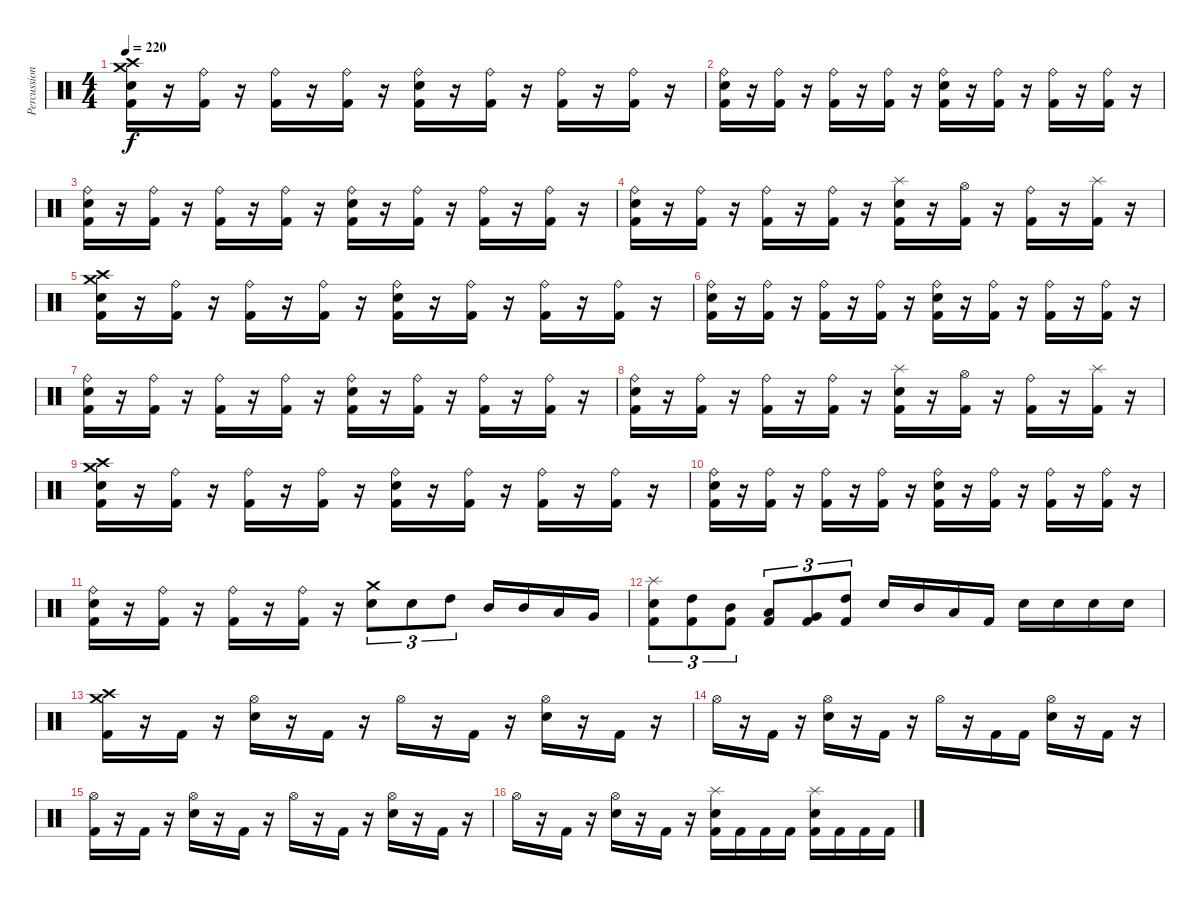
\track ("Percussion" "Percussion") {instrument percussion}
\staff {score}
\articulation defaults
\ts (4 4)
\tempo 220
\clef neutral
\ks c
("Crash high (hit)" "Crash medium (hit)" "Electric Snare (hit)" "Kick (hit) 2").16{dy f} r.16 ("Ride (bell)" "Kick (hit) 2").16 r.16 ("Ride (bell)" "Kick (hit) 2").16 r.16 ("Ride (bell)" "Kick (hit) 2").16 r.16 ("Ride (bell)" "Electric Snare (hit)" "Kick (hit) 2").16 r.16 ("Ride (bell)" "Kick (hit) 2").16 r.16 ("Ride (bell)" "Kick (hit) 2").16 r.16 ("Ride (bell)" "Kick (hit) 2").16 r.16 |
("Ride (bell)" "Electric Snare (hit)" "Kick (hit) 2").16 r.16 ("Ride (bell)" "Kick (hit) 2").16 r.16 ("Ride (bell)" "Kick (hit) 2").16 r.16 ("Ride (bell)" "Kick (hit) 2").16 r.16 ("Ride (bell)" "Electric Snare (hit)" "Kick (hit) 2").16 r.16 ("Ride (bell)" "Kick (hit) 2").16 r.16 ("Ride (bell)" "Kick (hit) 2").16 r.16 ("Ride (bell)" "Kick (hit) 2").16 r.16 |
("Ride (bell)" "Electric Snare (hit)" "Kick (hit) 2").16 r.16 ("Ride (bell)" "Kick (hit) 2").16 r.16 ("Ride (bell)" "Kick (hit) 2").16 r.16 ("Ride (bell)" "Kick (hit) 2").16 r.16 ("Ride (bell)" "Electric Snare (hit)" "Kick (hit) 2").16 r.16 ("Ride (bell)" "Kick (hit) 2").16 r.16 ("Ride (bell)" "Kick (hit) 2").16 r.16 ("Ride (bell)" "Kick (hit) 2").16 r.16 |
("Ride (bell)" "Electric Snare (hit)" "Kick (hit) 2").16 r.16 ("Ride (bell)" "Kick (hit) 2").16 r.16 ("Ride (bell)" "Kick (hit) 2").16 r.16 ("Ride (bell)" "Kick (hit) 2").16 r.16 ("Splash (hit)" "Electric Snare (hit)" "Kick (hit) 2").16 r.16 ("Hi-Hat (open)" "Kick (hit) 2").16 r.16 ("Ride (bell)" "Kick (hit) 2").16 r.16 ("Splash (hit)" "Kick (hit) 2").16 r.16 |
("Crash high (hit)" "Crash medium (hit)" "Electric Snare (hit)" "Kick (hit) 2").16 r.16 ("Ride (bell)" "Kick (hit) 2").16 r.16 ("Ride (bell)" "Kick (hit) 2").16 r.16 ("Ride (bell)" "Kick (hit) 2").16 r.16 ("Ride (bell)" "Electric Snare (hit)" "Kick (hit) 2").16 r.16 ("Ride (bell)" "Kick (hit) 2").16 r.16 ("Ride (bell)" "Kick (hit) 2").16 r.16 ("Ride (bell)" "Kick (hit) 2").16 r.16 |
("Ride (bell)" "Electric Snare (hit)" "Kick (hit) 2").16 r.16 ("Ride (bell)" "Kick (hit) 2").16 r.16 ("Ride (bell)" "Kick (hit) 2").16 r.16 ("Ride (bell)" "Kick (hit) 2").16 r.16 ("Ride (bell)" "Electric Snare (hit)" "Kick (hit) 2").16 r.16 ("Ride (bell)" "Kick (hit) 2").16 r.16 ("Ride (bell)" "Kick (hit) 2").16 r.16 ("Ride (bell)" "Kick (hit) 2").16 r.16 |
("Ride (bell)" "Electric Snare (hit)" "Kick (hit) 2").16 r.16 ("Ride (bell)" "Kick (hit) 2").16 r.16 ("Ride (bell)" "Kick (hit) 2").16 r.16 ("Ride (bell)" "Kick (hit) 2").16 r.16 ("Ride (bell)" "Electric Snare (hit)" "Kick (hit) 2").16 r.16 ("Ride (bell)" "Kick (hit) 2").16 r.16 ("Ride (bell)" "Kick (hit) 2").16 r.16 ("Ride (bell)" "Kick (hit) 2").16 r.16 |
("Ride (bell)" "Electric Snare (hit)" "Kick (hit) 2").16 r.16 ("Ride (bell)" "Kick (hit) 2").16 r.16 ("Ride (bell)" "Kick (hit) 2").16 r.16 ("Ride (bell)" "Kick (hit) 2").16 r.16 ("Splash (hit)" "Electric Snare (hit)" "Kick (hit) 2").16 r.16 ("Hi-Hat (open)" "Kick (hit) 2").16 r.16 ("Ride (bell)" "Kick (hit) 2").16 r.16 ("Splash (hit)" "Kick (hit) 2").16 r.16 |
("Crash high (hit)" "Crash medium (hit)" "Electric Snare (hit)" "Kick (hit) 2").16 r.16 ("Ride (bell)" "Kick (hit) 2").16 r.16 ("Ride (bell)" "Kick (hit) 2").16 r.16 ("Ride (bell)" "Kick (hit) 2").16 r.16 ("Ride (bell)" "Electric Snare (hit)" "Kick (hit) 2").16 r.16 ("Ride (bell)" "Kick (hit) 2").16 r.16 ("Ride (bell)" "Kick (hit) 2").16 r.16 ("Ride (bell)" "Kick (hit) 2").16 r.16 |
("Ride (bell)" "Electric Snare (hit)" "Kick (hit) 2").16 r.16 ("Ride (bell)" "Kick (hit) 2").16 r.16 ("Ride (bell)" "Kick (hit) 2").16 r.16 ("Ride (bell)" "Kick (hit) 2").16 r.16 ("Ride (bell)" "Electric Snare (hit)" "Kick (hit) 2").16 r.16 ("Ride (bell)" "Kick (hit) 2").16 r.16 ("Ride (bell)" "Kick (hit) 2").16 r.16 ("Ride (bell)" "Kick (hit) 2").16 r.16 |
("Ride (bell)" "Electric Snare (hit)" "Kick (hit) 2").16 r.16 ("Ride (bell)" "Kick (hit) 2").16 r.16 ("Ride (bell)" "Kick (hit) 2").16 r.16 ("Ride (bell)" "Kick (hit) 2").16 r.16 ("Crash medium (hit)" "Electric Snare (hit)").8{tu (3 2)} "Electric Snare (hit)".8{tu (3 2)} "High Tom (hit)".8{tu (3 2)} "Mid Tom (hit)".16 "Mid Tom (hit)".16 "Low Tom (hit)".16 "Very Low Tom (hit)".16 |
("Splash (hit)" "Electric Snare (hit)" "Kick (hit) 2").8{tu (3 2)} ("High Tom (hit)" "Kick (hit) 2").8{tu (3 2)} ("Mid Tom (hit)" "Kick (hit) 2").8{tu (3 2)} ("Low Tom (hit)" "Kick (hit) 2").8{tu (3 2)} ("Very Low Tom (hit)" "Kick (hit) 2").8{tu (3 2)} ("High Tom (hit)" "Kick (hit) 2").8{tu (3 2)} "Electric Snare (hit)".16 "Mid Tom (hit)".16 "Low Tom (hit)".16 "Kick (hit) 2".16 "Electric Snare (hit)".16 "Electric Snare (hit)".16 "Electric Snare (hit)".16 "Electric Snare (hit)".16 |
("Crash high (hit)" "Crash medium (hit)" "Kick (hit) 2").16 r.16 "Kick (hit) 2".16 r.16 ("Hi-Hat (open)" "Electric Snare (hit)").16 r.16 "Kick (hit) 2".16 r.16 "Hi-Hat (open)".16 r.16 "Kick (hit) 2".16 r.16 ("Hi-Hat (open)" "Electric Snare (hit)").16 r.16 "Kick (hit) 2".16 r.16 |
"Hi-Hat (open)".16 r.16 "Kick (hit) 2".16 r.16 ("Hi-Hat (open)" "Electric Snare (hit)").16 r.16 "Kick (hit) 2".16 r.16 "Hi-Hat (open)".16 r.16 "Kick (hit) 2".16 "Kick (hit) 2".16 ("Hi-Hat (open)" "Electric Snare (hit)").16 r.16 "Kick (hit) 2".16 r.16 |
("Hi-Hat (open)" "Kick (hit) 2").16 r.16 "Kick (hit) 2".16 r.16 ("Hi-Hat (open)" "Electric Snare (hit)").16 r.16 "Kick (hit) 2".16 r.16 "Hi-Hat (open)".16 r.16 "Kick (hit) 2".16 r.16 ("Hi-Hat (open)" "Electric Snare (hit)").16 r.16 "Kick (hit) 2".16 r.16 |
"Hi-Hat (open)".16 r.16 "Kick (hit) 2".16 r.16 ("Hi-Hat (open)" "Electric Snare (hit)").16 r.16 "Kick (hit) 2".16 r.16 ("Splash (hit)" "Electric Snare (hit)" "Kick (hit) 2").16 "Kick (hit) 2".16 "Kick (hit) 2".16 "Kick (hit) 2".16 ("Splash (hit)" "Electric Snare (hit)" "Kick (hit) 2").16 "Kick (hit) 2".16 "Kick (hit) 2".16 "Kick (hit) 2".16
